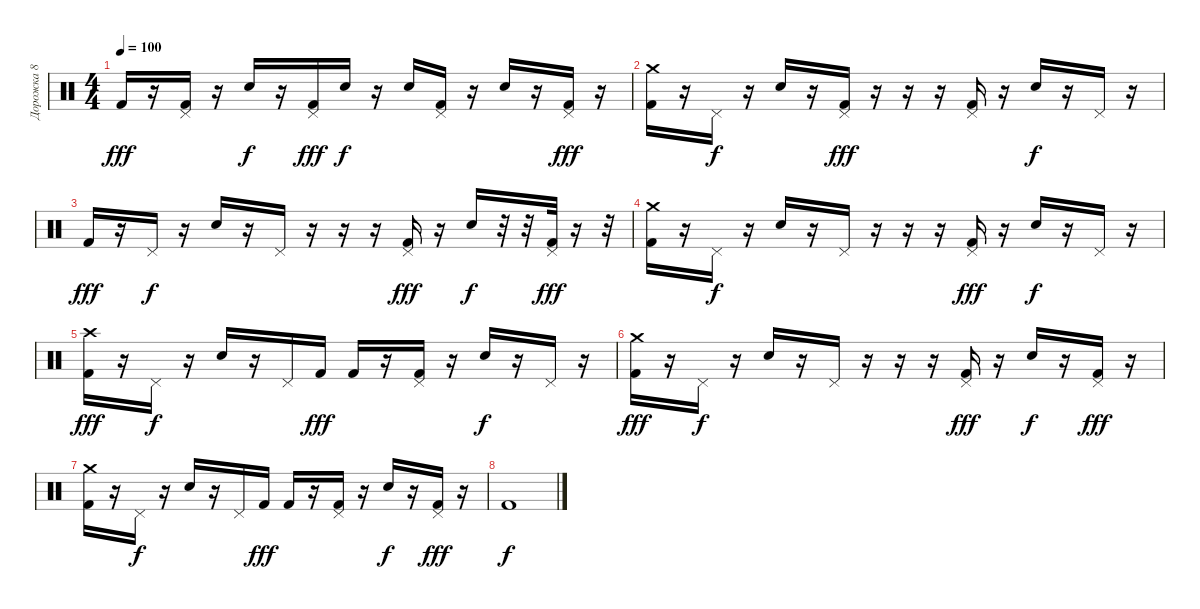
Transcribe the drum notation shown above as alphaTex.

\track ("Дорожка 8" "Дорожка 8") {instrument percussion}
\staff {score}
\articulation defaults
\ts (4 4)
\tempo 100
\clef neutral
\ks c "Kick (hit) 2".16{dy fff}
r.16 ("Pedal Hi-Hat (hit)" "Kick (hit) 2").16 r.16 "Snare (hit) 2".16{dy f} r.16 ("Pedal Hi-Hat (hit)" "Kick (hit) 2").16{dy fff} "Snare (hit) 2".16{dy f} r.16 "Snare (hit) 2".16 ("Pedal Hi-Hat (hit)" "Kick (hit) 2").16 r.16 "Snare (hit) 2".16 r.16 ("Pedal Hi-Hat (hit)" "Kick (hit) 2").16{dy fff} r.16 |
("Crash medium (hit)" "Kick (hit) 2").16 r.16 "Pedal Hi-Hat (hit)".16{dy f} r.16 "Snare (hit) 2".16 r.16 ("Pedal Hi-Hat (hit)" "Kick (hit) 2").16{dy fff} r.16 r.16 r.16 ("Pedal Hi-Hat (hit)" "Kick (hit) 2").16 r.16 "Snare (hit) 2".16{dy f} r.16 "Pedal Hi-Hat (hit)".16 r.16 |
"Kick (hit) 2".16{dy fff} r.16 "Pedal Hi-Hat (hit)".16{dy f} r.16 "Snare (hit) 2".16 r.16 "Pedal Hi-Hat (hit)".16 r.16 r.16 r.16 ("Pedal Hi-Hat (hit)" "Kick (hit) 2").16{dy fff} r.16 "Snare (hit) 2".16{dy f} r.32 r.32 ("Pedal Hi-Hat (hit)" "Kick (hit) 2").32{dy fff} r.16 r.32 |
("Crash medium (hit)" "Kick (hit) 2").16 r.16 "Pedal Hi-Hat (hit)".16{dy f} r.16 "Snare (hit) 2".16 r.16 "Pedal Hi-Hat (hit)".16 r.16 r.16 r.16 ("Pedal Hi-Hat (hit)" "Kick (hit) 2").16{dy fff} r.16 "Snare (hit) 2".16{dy f} r.16 "Pedal Hi-Hat (hit)".16 r.16 |
("Crash high (hit)" "Kick (hit) 2").16{dy fff} r.16 "Pedal Hi-Hat (hit)".16{dy f} r.16 "Snare (hit) 2".16 r.16 "Pedal Hi-Hat (hit)".16 "Kick (hit) 2".16{dy fff} "Kick (hit) 2".16 r.16 ("Pedal Hi-Hat (hit)" "Kick (hit) 2").16 r.16 "Snare (hit) 2".16{dy f} r.16 "Pedal Hi-Hat (hit)".16 r.16 |
("Crash medium (hit)" "Kick (hit) 2").16{dy fff} r.16 "Pedal Hi-Hat (hit)".16{dy f} r.16 "Snare (hit) 2".16 r.16 "Pedal Hi-Hat (hit)".16 r.16 r.16 r.16 ("Pedal Hi-Hat (hit)" "Kick (hit) 2").16{dy fff} r.16 "Snare (hit) 2".16{dy f} r.16 ("Pedal Hi-Hat (hit)" "Kick (hit) 2").16{dy fff} r.16 |
("Crash medium (hit)" "Kick (hit) 2").16 r.16 "Pedal Hi-Hat (hit)".16{dy f} r.16 "Snare (hit) 2".16 r.16 "Pedal Hi-Hat (hit)".16 "Kick (hit) 2".16{dy fff} "Kick (hit) 2".16 r.16 ("Pedal Hi-Hat (hit)" "Kick (hit) 2").16 r.16 "Snare (hit) 2".16{dy f} r.16 ("Pedal Hi-Hat (hit)" "Kick (hit) 2").16{dy fff} r.16 |
"Kick (hit) 2".1{dy f}
